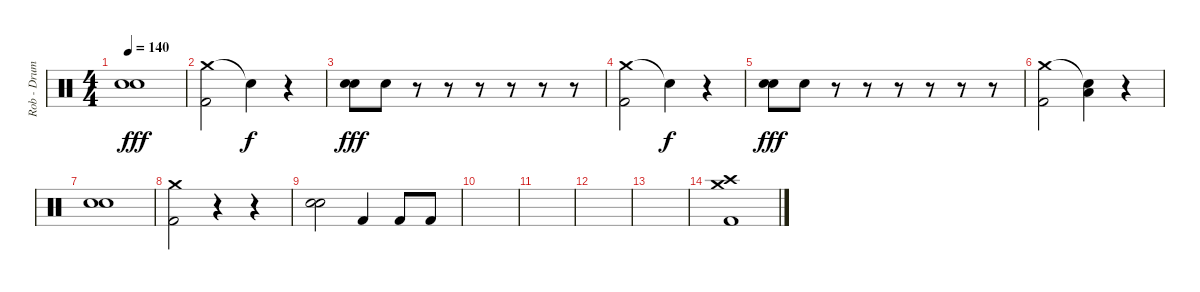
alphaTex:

\track ("Rob - Drums" "Rob - Drum") {instrument percussion}
\staff {score}
\articulation defaults
\ts (4 4)
\tempo 140
\clef neutral
\ks c
("Electric Snare (hit)" "Electric Snare (hit)").1{dy fff} |
("Crash medium (hit)" "Kick (hit) 2").2 "Snare (hit)"{t}.4{dy f} r.4 |
("Electric Snare (hit)" "Electric Snare (hit)").8{dy fff} "Electric Snare (hit)".8 r.8 r.8 r.8 r.8 r.8 r.8 |
("Crash medium (hit)" "Kick (hit) 2").2 "Snare (hit)"{t}.4{dy f} r.4 |
("Electric Snare (hit)" "Electric Snare (hit)").8{dy fff} "Electric Snare (hit)".8 r.8 r.8 r.8 r.8 r.8 r.8 |
("Crash medium (hit)" "Kick (hit) 2").2 ("Snare (hit)"{t} "Low Floor Tom (hit)").4 r.4 |
("Electric Snare (hit)" "Electric Snare (hit)").1 |
("Crash medium (hit)" "Kick (hit) 2").2 r.4 r.4 |
("Electric Snare (hit)" "Electric Snare (hit)").2 "Kick (hit) 2".4 "Kick (hit) 2".8 "Kick (hit) 2".8 |
|
|
|
|
("Crash medium (hit)" "Crash high (hit)" "Kick (hit) 2").1
